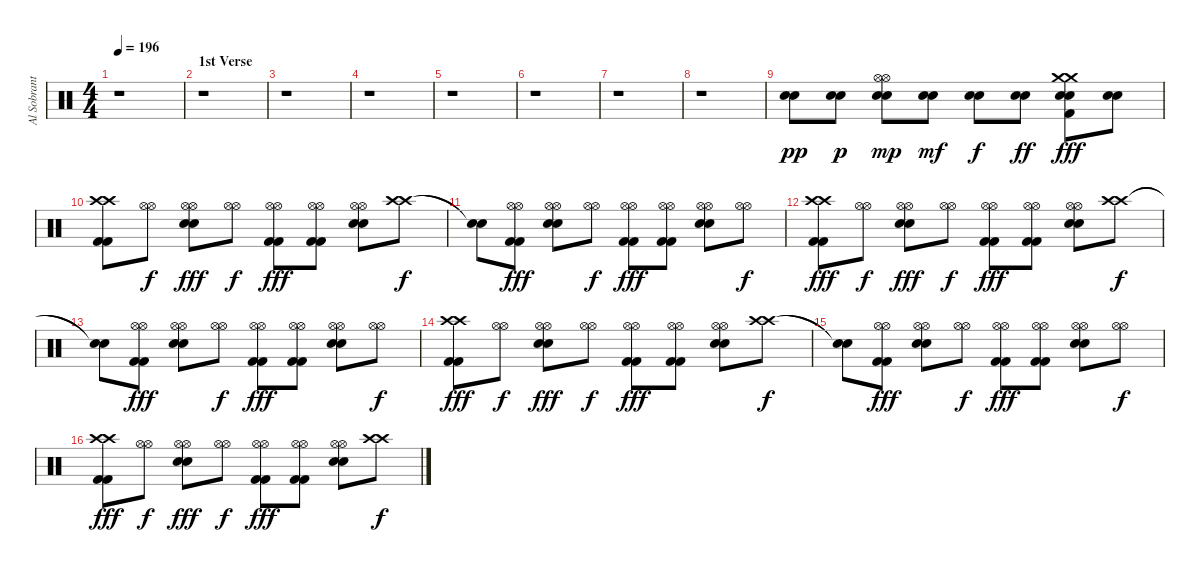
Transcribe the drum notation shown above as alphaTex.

\track ("Al Sobrante (Drums)" "Al Sobrant") {instrument percussion}
\staff {score}
\articulation defaults
\ts (4 4)
\tempo 196
\clef neutral
\ks c
r.1{dy f} |
\section ("" "1st Verse")
r.1 |
r.1 |
r.1 |
r.1 |
r.1 |
r.1 |
r.1 |
("Electric Snare (hit)" "Electric Snare (hit)").8{dy pp} ("Electric Snare (hit)" "Electric Snare (hit)").8{dy p} ("Electric Snare (hit)" "Electric Snare (hit)" "Hi-Hat (open)" "Hi-Hat (open)").8{dy mp} ("Electric Snare (hit)" "Electric Snare (hit)").8{dy mf} ("Electric Snare (hit)" "Electric Snare (hit)").8{dy f} ("Electric Snare (hit)" "Electric Snare (hit)").8{dy ff} ("Electric Snare (hit)" "Electric Snare (hit)" "Kick (hit) 2" "Crash medium (hit)" "Crash medium (hit)").8{dy fff} ("Electric Snare (hit)" "Electric Snare (hit)").8 |
("Kick (hit) 2" "Kick (hit) 2" "Crash high (hit)" "Crash high (hit)").8 ("Hi-Hat (open)" "Hi-Hat (open)").8{dy f} ("Electric Snare (hit)" "Electric Snare (hit)" "Hi-Hat (open)" "Hi-Hat (open)").8{dy fff} ("Hi-Hat (open)" "Hi-Hat (open)").8{dy f} ("Kick (hit) 2" "Kick (hit) 2" "Hi-Hat (open)" "Hi-Hat (open)").8{dy fff} ("Kick (hit) 2" "Kick (hit) 2" "Hi-Hat (open)" "Hi-Hat (open)").8 ("Electric Snare (hit)" "Electric Snare (hit)" "Hi-Hat (open)" "Hi-Hat (open)").8 ("Crash high (hit)" "Crash high (hit)").8{dy f} |
("Snare (hit)"{t} "Snare (hit)"{t}).8 ("Kick (hit) 2" "Kick (hit) 2" "Hi-Hat (open)" "Hi-Hat (open)").8{dy fff} ("Electric Snare (hit)" "Electric Snare (hit)" "Hi-Hat (open)" "Hi-Hat (open)").8 ("Hi-Hat (open)" "Hi-Hat (open)").8{dy f} ("Kick (hit) 2" "Kick (hit) 2" "Hi-Hat (open)" "Hi-Hat (open)").8{dy fff} ("Kick (hit) 2" "Kick (hit) 2" "Hi-Hat (open)" "Hi-Hat (open)").8 ("Electric Snare (hit)" "Electric Snare (hit)" "Hi-Hat (open)" "Hi-Hat (open)").8 ("Hi-Hat (open)" "Hi-Hat (open)").8{dy f} |
("Kick (hit) 2" "Kick (hit) 2" "Crash high (hit)" "Crash high (hit)").8{dy fff} ("Hi-Hat (open)" "Hi-Hat (open)").8{dy f} ("Electric Snare (hit)" "Electric Snare (hit)" "Hi-Hat (open)" "Hi-Hat (open)").8{dy fff} ("Hi-Hat (open)" "Hi-Hat (open)").8{dy f} ("Kick (hit) 2" "Kick (hit) 2" "Hi-Hat (open)" "Hi-Hat (open)").8{dy fff} ("Kick (hit) 2" "Kick (hit) 2" "Hi-Hat (open)" "Hi-Hat (open)").8 ("Electric Snare (hit)" "Electric Snare (hit)" "Hi-Hat (open)" "Hi-Hat (open)").8 ("Crash high (hit)" "Crash high (hit)").8{dy f} |
("Snare (hit)"{t} "Snare (hit)"{t}).8 ("Kick (hit) 2" "Kick (hit) 2" "Hi-Hat (open)" "Hi-Hat (open)").8{dy fff} ("Electric Snare (hit)" "Electric Snare (hit)" "Hi-Hat (open)" "Hi-Hat (open)").8 ("Hi-Hat (open)" "Hi-Hat (open)").8{dy f} ("Kick (hit) 2" "Kick (hit) 2" "Hi-Hat (open)" "Hi-Hat (open)").8{dy fff} ("Kick (hit) 2" "Kick (hit) 2" "Hi-Hat (open)" "Hi-Hat (open)").8 ("Electric Snare (hit)" "Electric Snare (hit)" "Hi-Hat (open)" "Hi-Hat (open)").8 ("Hi-Hat (open)" "Hi-Hat (open)").8{dy f} |
("Kick (hit) 2" "Kick (hit) 2" "Crash high (hit)" "Crash high (hit)").8{dy fff} ("Hi-Hat (open)" "Hi-Hat (open)").8{dy f} ("Electric Snare (hit)" "Electric Snare (hit)" "Hi-Hat (open)" "Hi-Hat (open)").8{dy fff} ("Hi-Hat (open)" "Hi-Hat (open)").8{dy f} ("Kick (hit) 2" "Kick (hit) 2" "Hi-Hat (open)" "Hi-Hat (open)").8{dy fff} ("Kick (hit) 2" "Kick (hit) 2" "Hi-Hat (open)" "Hi-Hat (open)").8 ("Electric Snare (hit)" "Electric Snare (hit)" "Hi-Hat (open)" "Hi-Hat (open)").8 ("Crash high (hit)" "Crash high (hit)").8{dy f} |
("Snare (hit)"{t} "Snare (hit)"{t}).8 ("Kick (hit) 2" "Kick (hit) 2" "Hi-Hat (open)" "Hi-Hat (open)").8{dy fff} ("Electric Snare (hit)" "Electric Snare (hit)" "Hi-Hat (open)" "Hi-Hat (open)").8 ("Hi-Hat (open)" "Hi-Hat (open)").8{dy f} ("Kick (hit) 2" "Kick (hit) 2" "Hi-Hat (open)" "Hi-Hat (open)").8{dy fff} ("Kick (hit) 2" "Kick (hit) 2" "Hi-Hat (open)" "Hi-Hat (open)").8 ("Electric Snare (hit)" "Electric Snare (hit)" "Hi-Hat (open)" "Hi-Hat (open)").8 ("Hi-Hat (open)" "Hi-Hat (open)").8{dy f} |
("Kick (hit) 2" "Kick (hit) 2" "Crash high (hit)" "Crash high (hit)").8{dy fff} ("Hi-Hat (open)" "Hi-Hat (open)").8{dy f} ("Electric Snare (hit)" "Electric Snare (hit)" "Hi-Hat (open)" "Hi-Hat (open)").8{dy fff} ("Hi-Hat (open)" "Hi-Hat (open)").8{dy f} ("Kick (hit) 2" "Kick (hit) 2" "Hi-Hat (open)" "Hi-Hat (open)").8{dy fff} ("Kick (hit) 2" "Kick (hit) 2" "Hi-Hat (open)" "Hi-Hat (open)").8 ("Electric Snare (hit)" "Electric Snare (hit)" "Hi-Hat (open)" "Hi-Hat (open)").8 ("Crash high (hit)" "Crash high (hit)").8{dy f}
